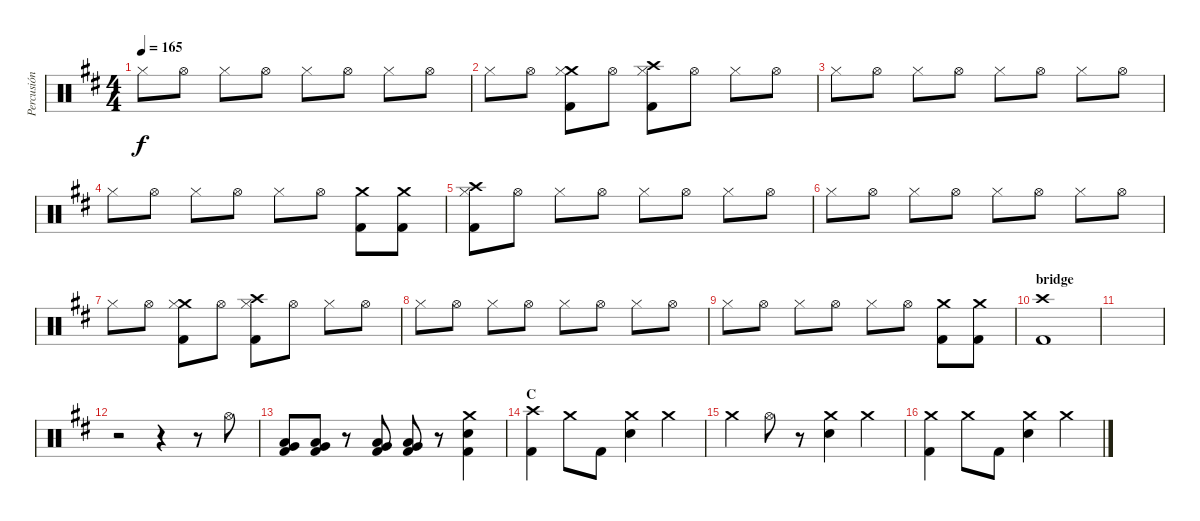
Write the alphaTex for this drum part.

\track ("Percusión" "Percusión") {instrument percussion}
\staff {score}
\articulation defaults
\ts (4 4)
\tempo 165
\clef neutral
\ks d "Hi-Hat (closed)".8{dy f} "Hi-Hat (open)".8 "Hi-Hat (closed)".8 "Hi-Hat (open)".8 "Hi-Hat (closed)".8 "Hi-Hat (open)".8 "Hi-Hat (closed)".8 "Hi-Hat (open)".8
|
"Hi-Hat (closed)".8 "Hi-Hat (open)".8 ("Crash medium (hit)" "Hi-Hat (closed)" "Kick (hit) 2").8 "Hi-Hat (open)".8 ("Crash high (hit)" "Hi-Hat (closed)" "Kick (hit) 2").8 "Hi-Hat (open)".8 "Hi-Hat (closed)".8 "Hi-Hat (open)".8 |
"Hi-Hat (closed)".8 "Hi-Hat (open)".8 "Hi-Hat (closed)".8 "Hi-Hat (open)".8 "Hi-Hat (closed)".8 "Hi-Hat (open)".8 "Hi-Hat (closed)".8 "Hi-Hat (open)".8 |
"Hi-Hat (closed)".8 "Hi-Hat (open)".8 "Hi-Hat (closed)".8 "Hi-Hat (open)".8 "Hi-Hat (closed)".8 "Hi-Hat (open)".8 ("Crash medium (hit)" "Kick (hit) 2").8 ("Crash medium (hit)" "Kick (hit) 2").8 |
("Crash high (hit)" "Hi-Hat (closed)" "Kick (hit) 2").8 "Hi-Hat (open)".8 "Hi-Hat (closed)".8 "Hi-Hat (open)".8 "Hi-Hat (closed)".8 "Hi-Hat (open)".8 "Hi-Hat (closed)".8 "Hi-Hat (open)".8 |
"Hi-Hat (closed)".8 "Hi-Hat (open)".8 "Hi-Hat (closed)".8 "Hi-Hat (open)".8 "Hi-Hat (closed)".8 "Hi-Hat (open)".8 "Hi-Hat (closed)".8 "Hi-Hat (open)".8 |
"Hi-Hat (closed)".8 "Hi-Hat (open)".8 ("Crash medium (hit)" "Hi-Hat (closed)" "Kick (hit) 2").8 "Hi-Hat (open)".8 ("Crash high (hit)" "Hi-Hat (closed)" "Kick (hit) 2").8 "Hi-Hat (open)".8 "Hi-Hat (closed)".8 "Hi-Hat (open)".8 |
"Hi-Hat (closed)".8 "Hi-Hat (open)".8 "Hi-Hat (closed)".8 "Hi-Hat (open)".8 "Hi-Hat (closed)".8 "Hi-Hat (open)".8 "Hi-Hat (closed)".8 "Hi-Hat (open)".8 |
"Hi-Hat (closed)".8 "Hi-Hat (open)".8 "Hi-Hat (closed)".8 "Hi-Hat (open)".8 "Hi-Hat (closed)".8 "Hi-Hat (open)".8 ("Crash medium (hit)" "Kick (hit) 2").8 ("Crash medium (hit)" "Kick (hit) 2").8 |
\section ("" "bridge")
("Crash high (hit)" "Kick (hit) 2").1 |
|
r.2 r.4 r.8 "Hi-Hat (open)".8 |
("Very Low Tom (hit)" "Low Floor Tom (hit)" "Kick (hit) 2").8 ("Very Low Tom (hit)" "Low Floor Tom (hit)" "Kick (hit) 2").8 r.8 ("Very Low Tom (hit)" "Low Floor Tom (hit)" "Kick (hit) 2").8 ("Very Low Tom (hit)" "Low Floor Tom (hit)" "Kick (hit) 2").8 r.8 ("Crash medium (hit)" "Electric Snare (hit)" "Kick (hit) 2").4 |
\section ("" "C")
("Crash high (hit)" "Kick (hit) 2").4 "Crash medium (hit)".8 "Kick (hit) 2".8 ("Crash medium (hit)" "Electric Snare (hit)").4 "Crash medium (hit)".4 |
"Crash medium (hit)".4 "Hi-Hat (open)".8 r.8 ("Crash medium (hit)" "Electric Snare (hit)").4 "Crash medium (hit)".4 |
("Crash medium (hit)" "Kick (hit) 2").4 "Crash medium (hit)".8 "Kick (hit) 2".8 ("Crash medium (hit)" "Electric Snare (hit)").4 "Crash medium (hit)".4
